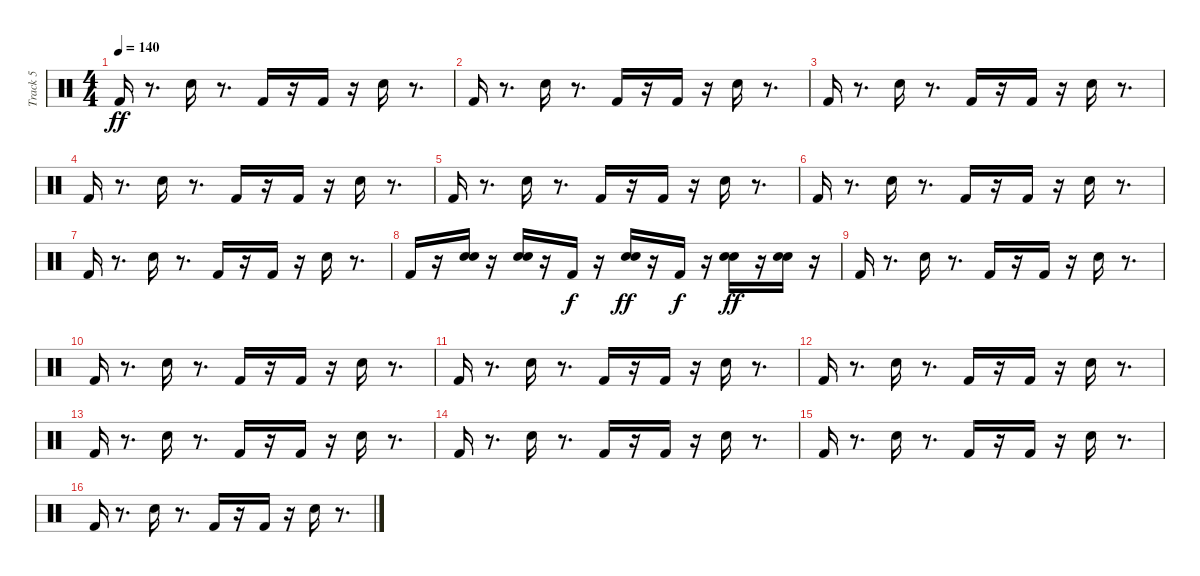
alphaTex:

\track ("Track 5" "Track 5") {instrument percussion}
\staff {score}
\articulation defaults
\ts (4 4)
\tempo 140
\clef neutral
\ks c "Kick (hit) 2".16{dy ff}
r.8{d} "Snare (hit) 2".16 r.8{d} "Kick (hit) 2".16 r.16 "Kick (hit) 2".16 r.16 "Snare (hit) 2".16 r.8{d} |
"Kick (hit) 2".16 r.8{d} "Snare (hit) 2".16 r.8{d} "Kick (hit) 2".16 r.16 "Kick (hit) 2".16 r.16 "Snare (hit) 2".16 r.8{d} |
"Kick (hit) 2".16 r.8{d} "Snare (hit) 2".16 r.8{d} "Kick (hit) 2".16 r.16 "Kick (hit) 2".16 r.16 "Snare (hit) 2".16 r.8{d} |
"Kick (hit) 2".16 r.8{d} "Snare (hit) 2".16 r.8{d} "Kick (hit) 2".16 r.16 "Kick (hit) 2".16 r.16 "Snare (hit) 2".16 r.8{d} |
"Kick (hit) 2".16 r.8{d} "Snare (hit) 2".16 r.8{d} "Kick (hit) 2".16 r.16 "Kick (hit) 2".16 r.16 "Snare (hit) 2".16 r.8{d} |
"Kick (hit) 2".16 r.8{d} "Snare (hit) 2".16 r.8{d} "Kick (hit) 2".16 r.16 "Kick (hit) 2".16 r.16 "Snare (hit) 2".16 r.8{d} |
"Kick (hit) 2".16 r.8{d} "Snare (hit) 2".16 r.8{d} "Kick (hit) 2".16 r.16 "Kick (hit) 2".16 r.16 "Snare (hit) 2".16 r.8{d} |
"Kick (hit) 2".16 r.16 ("Snare (hit) 2" "Hand Clap (hit)").16 r.16 ("Snare (hit) 2" "Hand Clap (hit)").16 r.16 "Kick (hit) 2".16{dy f} r.16 ("Snare (hit) 2" "Hand Clap (hit)").16{dy ff} r.16 "Kick (hit) 2".16{dy f} r.16 ("Snare (hit) 2" "Hand Clap (hit)").16{dy ff} r.16 ("Snare (hit) 2" "Hand Clap (hit)").16 r.16 |
"Kick (hit) 2".16 r.8{d} "Snare (hit) 2".16 r.8{d} "Kick (hit) 2".16 r.16 "Kick (hit) 2".16 r.16 "Snare (hit) 2".16 r.8{d} |
"Kick (hit) 2".16 r.8{d} "Snare (hit) 2".16 r.8{d} "Kick (hit) 2".16 r.16 "Kick (hit) 2".16 r.16 "Snare (hit) 2".16 r.8{d} |
"Kick (hit) 2".16 r.8{d} "Snare (hit) 2".16 r.8{d} "Kick (hit) 2".16 r.16 "Kick (hit) 2".16 r.16 "Snare (hit) 2".16 r.8{d} |
"Kick (hit) 2".16 r.8{d} "Snare (hit) 2".16 r.8{d} "Kick (hit) 2".16 r.16 "Kick (hit) 2".16 r.16 "Snare (hit) 2".16 r.8{d} |
"Kick (hit) 2".16 r.8{d} "Snare (hit) 2".16 r.8{d} "Kick (hit) 2".16 r.16 "Kick (hit) 2".16 r.16 "Snare (hit) 2".16 r.8{d} |
"Kick (hit) 2".16 r.8{d} "Snare (hit) 2".16 r.8{d} "Kick (hit) 2".16 r.16 "Kick (hit) 2".16 r.16 "Snare (hit) 2".16 r.8{d} |
"Kick (hit) 2".16 r.8{d} "Snare (hit) 2".16 r.8{d} "Kick (hit) 2".16 r.16 "Kick (hit) 2".16 r.16 "Snare (hit) 2".16 r.8{d} |
"Kick (hit) 2".16 r.8{d} "Snare (hit) 2".16 r.8{d} "Kick (hit) 2".16 r.16 "Kick (hit) 2".16 r.16 "Snare (hit) 2".16 r.8{d}
